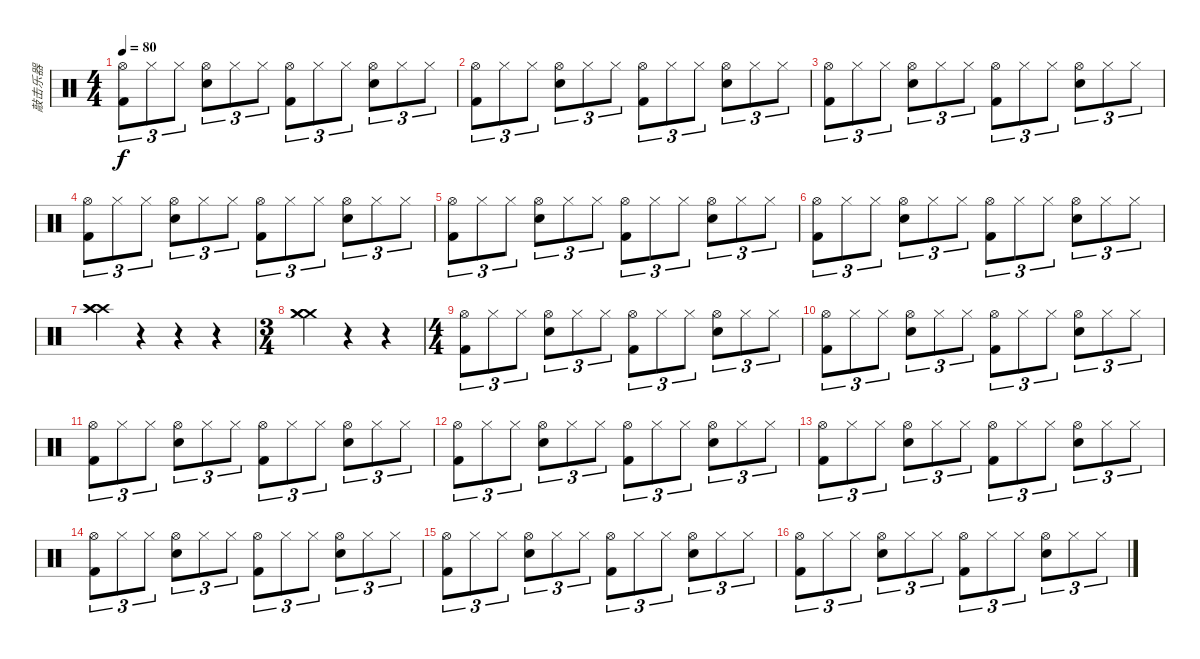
\track ("敲击乐器" "敲击乐器") {instrument percussion}
\staff {score}
\articulation defaults
\ts (4 4)
\tempo 80
\clef neutral
\ks c
("Hi-Hat (open)" "Kick (hit) 2").8{tu (3 2) dy f} "Hi-Hat (closed)".8{tu (3 2)} "Hi-Hat (closed)".8{tu (3 2)} ("Hi-Hat (open)" "Electric Snare (hit)").8{tu (3 2)} "Hi-Hat (closed)".8{tu (3 2)} "Hi-Hat (closed)".8{tu (3 2)} ("Hi-Hat (open)" "Kick (hit) 2").8{tu (3 2)} "Hi-Hat (closed)".8{tu (3 2)} "Hi-Hat (closed)".8{tu (3 2)} ("Hi-Hat (open)" "Electric Snare (hit)").8{tu (3 2)} "Hi-Hat (closed)".8{tu (3 2)} "Hi-Hat (closed)".8{tu (3 2)} |
("Hi-Hat (open)" "Kick (hit) 2").8{tu (3 2)} "Hi-Hat (closed)".8{tu (3 2)} "Hi-Hat (closed)".8{tu (3 2)} ("Hi-Hat (open)" "Electric Snare (hit)").8{tu (3 2)} "Hi-Hat (closed)".8{tu (3 2)} "Hi-Hat (closed)".8{tu (3 2)} ("Hi-Hat (open)" "Kick (hit) 2").8{tu (3 2)} "Hi-Hat (closed)".8{tu (3 2)} "Hi-Hat (closed)".8{tu (3 2)} ("Hi-Hat (open)" "Electric Snare (hit)").8{tu (3 2)} "Hi-Hat (closed)".8{tu (3 2)} "Hi-Hat (closed)".8{tu (3 2)} |
("Hi-Hat (open)" "Kick (hit) 2").8{tu (3 2)} "Hi-Hat (closed)".8{tu (3 2)} "Hi-Hat (closed)".8{tu (3 2)} ("Hi-Hat (open)" "Electric Snare (hit)").8{tu (3 2)} "Hi-Hat (closed)".8{tu (3 2)} "Hi-Hat (closed)".8{tu (3 2)} ("Hi-Hat (open)" "Kick (hit) 2").8{tu (3 2)} "Hi-Hat (closed)".8{tu (3 2)} "Hi-Hat (closed)".8{tu (3 2)} ("Hi-Hat (open)" "Electric Snare (hit)").8{tu (3 2)} "Hi-Hat (closed)".8{tu (3 2)} "Hi-Hat (closed)".8{tu (3 2)} |
("Hi-Hat (open)" "Kick (hit) 2").8{tu (3 2)} "Hi-Hat (closed)".8{tu (3 2)} "Hi-Hat (closed)".8{tu (3 2)} ("Hi-Hat (open)" "Electric Snare (hit)").8{tu (3 2)} "Hi-Hat (closed)".8{tu (3 2)} "Hi-Hat (closed)".8{tu (3 2)} ("Hi-Hat (open)" "Kick (hit) 2").8{tu (3 2)} "Hi-Hat (closed)".8{tu (3 2)} "Hi-Hat (closed)".8{tu (3 2)} ("Hi-Hat (open)" "Electric Snare (hit)").8{tu (3 2)} "Hi-Hat (closed)".8{tu (3 2)} "Hi-Hat (closed)".8{tu (3 2)} |
("Hi-Hat (open)" "Kick (hit) 2").8{tu (3 2)} "Hi-Hat (closed)".8{tu (3 2)} "Hi-Hat (closed)".8{tu (3 2)} ("Hi-Hat (open)" "Electric Snare (hit)").8{tu (3 2)} "Hi-Hat (closed)".8{tu (3 2)} "Hi-Hat (closed)".8{tu (3 2)} ("Hi-Hat (open)" "Kick (hit) 2").8{tu (3 2)} "Hi-Hat (closed)".8{tu (3 2)} "Hi-Hat (closed)".8{tu (3 2)} ("Hi-Hat (open)" "Electric Snare (hit)").8{tu (3 2)} "Hi-Hat (closed)".8{tu (3 2)} "Hi-Hat (closed)".8{tu (3 2)} |
("Hi-Hat (open)" "Kick (hit) 2").8{tu (3 2)} "Hi-Hat (closed)".8{tu (3 2)} "Hi-Hat (closed)".8{tu (3 2)} ("Hi-Hat (open)" "Electric Snare (hit)").8{tu (3 2)} "Hi-Hat (closed)".8{tu (3 2)} "Hi-Hat (closed)".8{tu (3 2)} ("Hi-Hat (open)" "Kick (hit) 2").8{tu (3 2)} "Hi-Hat (closed)".8{tu (3 2)} "Hi-Hat (closed)".8{tu (3 2)} ("Hi-Hat (open)" "Electric Snare (hit)").8{tu (3 2)} "Hi-Hat (closed)".8{tu (3 2)} "Hi-Hat (closed)".8{tu (3 2)} |
("Crash high (hit)" "Crash high (hit)" "Crash high (hit)").4 r.4 r.4 r.4 |
\ts (3 4)
("Crash medium (hit)" "Crash medium (hit)" "Crash medium (hit)").4 r.4 r.4 |
\ts (4 4)
("Hi-Hat (open)" "Kick (hit) 2").8{tu (3 2)} "Hi-Hat (closed)".8{tu (3 2)} "Hi-Hat (closed)".8{tu (3 2)} ("Hi-Hat (open)" "Electric Snare (hit)").8{tu (3 2)} "Hi-Hat (closed)".8{tu (3 2)} "Hi-Hat (closed)".8{tu (3 2)} ("Hi-Hat (open)" "Kick (hit) 2").8{tu (3 2)} "Hi-Hat (closed)".8{tu (3 2)} "Hi-Hat (closed)".8{tu (3 2)} ("Hi-Hat (open)" "Electric Snare (hit)").8{tu (3 2)} "Hi-Hat (closed)".8{tu (3 2)} "Hi-Hat (closed)".8{tu (3 2)} |
("Hi-Hat (open)" "Kick (hit) 2").8{tu (3 2)} "Hi-Hat (closed)".8{tu (3 2)} "Hi-Hat (closed)".8{tu (3 2)} ("Hi-Hat (open)" "Electric Snare (hit)").8{tu (3 2)} "Hi-Hat (closed)".8{tu (3 2)} "Hi-Hat (closed)".8{tu (3 2)} ("Hi-Hat (open)" "Kick (hit) 2").8{tu (3 2)} "Hi-Hat (closed)".8{tu (3 2)} "Hi-Hat (closed)".8{tu (3 2)} ("Hi-Hat (open)" "Electric Snare (hit)").8{tu (3 2)} "Hi-Hat (closed)".8{tu (3 2)} "Hi-Hat (closed)".8{tu (3 2)} |
("Hi-Hat (open)" "Kick (hit) 2").8{tu (3 2)} "Hi-Hat (closed)".8{tu (3 2)} "Hi-Hat (closed)".8{tu (3 2)} ("Hi-Hat (open)" "Electric Snare (hit)").8{tu (3 2)} "Hi-Hat (closed)".8{tu (3 2)} "Hi-Hat (closed)".8{tu (3 2)} ("Hi-Hat (open)" "Kick (hit) 2").8{tu (3 2)} "Hi-Hat (closed)".8{tu (3 2)} "Hi-Hat (closed)".8{tu (3 2)} ("Hi-Hat (open)" "Electric Snare (hit)").8{tu (3 2)} "Hi-Hat (closed)".8{tu (3 2)} "Hi-Hat (closed)".8{tu (3 2)} |
("Hi-Hat (open)" "Kick (hit) 2").8{tu (3 2)} "Hi-Hat (closed)".8{tu (3 2)} "Hi-Hat (closed)".8{tu (3 2)} ("Hi-Hat (open)" "Electric Snare (hit)").8{tu (3 2)} "Hi-Hat (closed)".8{tu (3 2)} "Hi-Hat (closed)".8{tu (3 2)} ("Hi-Hat (open)" "Kick (hit) 2").8{tu (3 2)} "Hi-Hat (closed)".8{tu (3 2)} "Hi-Hat (closed)".8{tu (3 2)} ("Hi-Hat (open)" "Electric Snare (hit)").8{tu (3 2)} "Hi-Hat (closed)".8{tu (3 2)} "Hi-Hat (closed)".8{tu (3 2)} |
("Hi-Hat (open)" "Kick (hit) 2").8{tu (3 2)} "Hi-Hat (closed)".8{tu (3 2)} "Hi-Hat (closed)".8{tu (3 2)} ("Hi-Hat (open)" "Electric Snare (hit)").8{tu (3 2)} "Hi-Hat (closed)".8{tu (3 2)} "Hi-Hat (closed)".8{tu (3 2)} ("Hi-Hat (open)" "Kick (hit) 2").8{tu (3 2)} "Hi-Hat (closed)".8{tu (3 2)} "Hi-Hat (closed)".8{tu (3 2)} ("Hi-Hat (open)" "Electric Snare (hit)").8{tu (3 2)} "Hi-Hat (closed)".8{tu (3 2)} "Hi-Hat (closed)".8{tu (3 2)} |
("Hi-Hat (open)" "Kick (hit) 2").8{tu (3 2)} "Hi-Hat (closed)".8{tu (3 2)} "Hi-Hat (closed)".8{tu (3 2)} ("Hi-Hat (open)" "Electric Snare (hit)").8{tu (3 2)} "Hi-Hat (closed)".8{tu (3 2)} "Hi-Hat (closed)".8{tu (3 2)} ("Hi-Hat (open)" "Kick (hit) 2").8{tu (3 2)} "Hi-Hat (closed)".8{tu (3 2)} "Hi-Hat (closed)".8{tu (3 2)} ("Hi-Hat (open)" "Electric Snare (hit)").8{tu (3 2)} "Hi-Hat (closed)".8{tu (3 2)} "Hi-Hat (closed)".8{tu (3 2)} |
("Hi-Hat (open)" "Kick (hit) 2").8{tu (3 2)} "Hi-Hat (closed)".8{tu (3 2)} "Hi-Hat (closed)".8{tu (3 2)} ("Hi-Hat (open)" "Electric Snare (hit)").8{tu (3 2)} "Hi-Hat (closed)".8{tu (3 2)} "Hi-Hat (closed)".8{tu (3 2)} ("Hi-Hat (open)" "Kick (hit) 2").8{tu (3 2)} "Hi-Hat (closed)".8{tu (3 2)} "Hi-Hat (closed)".8{tu (3 2)} ("Hi-Hat (open)" "Electric Snare (hit)").8{tu (3 2)} "Hi-Hat (closed)".8{tu (3 2)} "Hi-Hat (closed)".8{tu (3 2)} |
("Hi-Hat (open)" "Kick (hit) 2").8{tu (3 2)} "Hi-Hat (closed)".8{tu (3 2)} "Hi-Hat (closed)".8{tu (3 2)} ("Hi-Hat (open)" "Electric Snare (hit)").8{tu (3 2)} "Hi-Hat (closed)".8{tu (3 2)} "Hi-Hat (closed)".8{tu (3 2)} ("Hi-Hat (open)" "Kick (hit) 2").8{tu (3 2)} "Hi-Hat (closed)".8{tu (3 2)} "Hi-Hat (closed)".8{tu (3 2)} ("Hi-Hat (open)" "Electric Snare (hit)").8{tu (3 2)} "Hi-Hat (closed)".8{tu (3 2)} "Hi-Hat (closed)".8{tu (3 2)}
